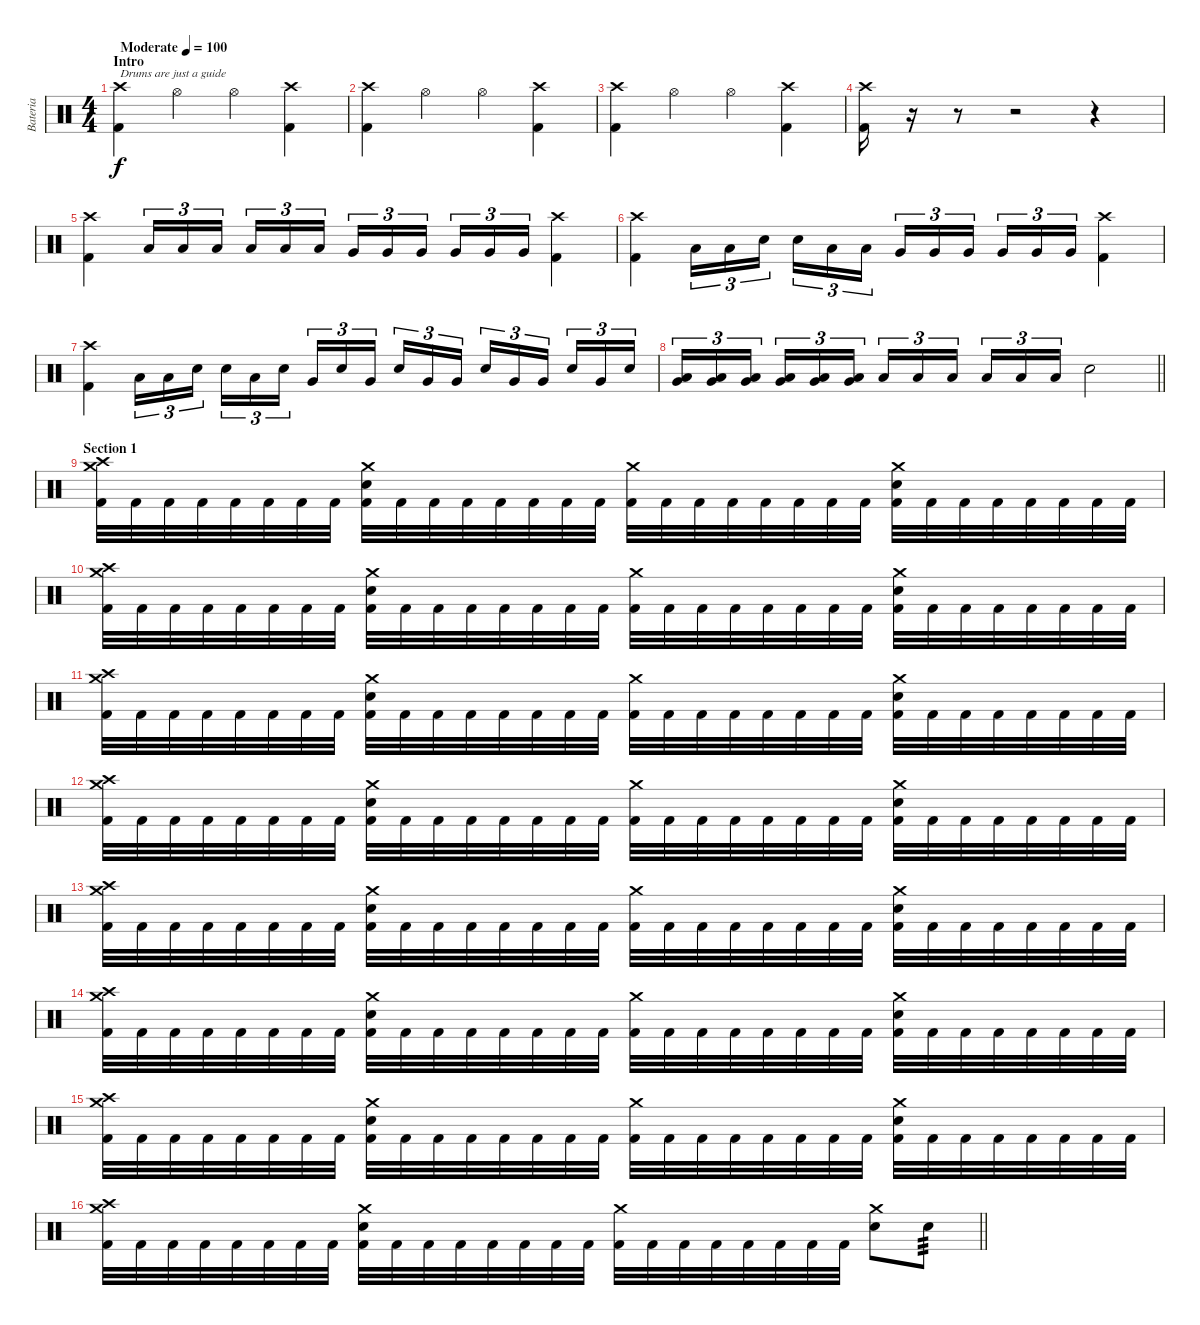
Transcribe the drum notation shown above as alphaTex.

\track ("Bateria" "Bateria") {instrument percussion}
\staff {score}
\articulation defaults
\ts (4 4)
\section ("" "Intro")
\tempo (100 "Moderate")
\clef neutral
\ks c
("Crash high (hit)" "Kick (hit) 2").4{txt "Drums are just a guide" dy f} "Hi-Hat (open)".4 "Hi-Hat (open)".4 ("Crash high (hit)" "Kick (hit) 2").4 |
("Crash high (hit)" "Kick (hit) 2").4 "Hi-Hat (open)".4 "Hi-Hat (open)".4 ("Crash high (hit)" "Kick (hit) 2").4 |
("Crash high (hit)" "Kick (hit) 2").4 "Hi-Hat (open)".4 "Hi-Hat (open)".4 ("Crash high (hit)" "Kick (hit) 2").4 |
("Crash high (hit)" "Kick (hit) 2").16 r.16 r.8 r.2 r.4 |
("Crash high (hit)" "Kick (hit) 2").4 "Low Tom (hit)".16{tu (3 2)} "Low Tom (hit)".16{tu (3 2)} "Low Tom (hit)".16{tu (3 2) beam splitsecondary} "Low Tom (hit)".16{tu (3 2)} "Low Tom (hit)".16{tu (3 2)} "Low Tom (hit)".16{tu (3 2)} "Very Low Tom (hit)".16{tu (3 2)} "Very Low Tom (hit)".16{tu (3 2)} "Very Low Tom (hit)".16{tu (3 2) beam splitsecondary} "Very Low Tom (hit)".16{tu (3 2)} "Very Low Tom (hit)".16{tu (3 2)} "Very Low Tom (hit)".16{tu (3 2)} ("Crash high (hit)" "Kick (hit) 2").4 |
("Crash high (hit)" "Kick (hit) 2").4 "Low Tom (hit)".16{tu (3 2)} "Low Tom (hit)".16{tu (3 2)} "Snare (hit) 2".16{tu (3 2) beam splitsecondary} "Snare (hit) 2".16{tu (3 2)} "Low Tom (hit)".16{tu (3 2)} "Low Tom (hit)".16{tu (3 2)} "Very Low Tom (hit)".16{tu (3 2)} "Very Low Tom (hit)".16{tu (3 2)} "Very Low Tom (hit)".16{tu (3 2) beam splitsecondary} "Very Low Tom (hit)".16{tu (3 2)} "Very Low Tom (hit)".16{tu (3 2)} "Very Low Tom (hit)".16{tu (3 2)} ("Crash high (hit)" "Kick (hit) 2").4 |
("Crash high (hit)" "Kick (hit) 2").4 "Low Tom (hit)".16{tu (3 2)} "Low Tom (hit)".16{tu (3 2)} "Snare (hit) 2".16{tu (3 2) beam splitsecondary} "Snare (hit) 2".16{tu (3 2)} "Low Tom (hit)".16{tu (3 2)} "Snare (hit) 2".16{tu (3 2)} "Very Low Tom (hit)".16{tu (3 2)} "Snare (hit) 2".16{tu (3 2)} "Very Low Tom (hit)".16{tu (3 2) beam splitsecondary} "Snare (hit) 2".16{tu (3 2)} "Very Low Tom (hit)".16{tu (3 2)} "Very Low Tom (hit)".16{tu (3 2)} "Snare (hit) 2".16{tu (3 2)} "Very Low Tom (hit)".16{tu (3 2)} "Very Low Tom (hit)".16{tu (3 2) beam splitsecondary} "Snare (hit) 2".16{tu (3 2)} "Very Low Tom (hit)".16{tu (3 2)} "Snare (hit) 2".16{tu (3 2)} |
\barLineRight lightlight
("Very Low Tom (hit)" "Low Floor Tom (hit)").16{tu (3 2)} ("Very Low Tom (hit)" "Low Floor Tom (hit)").16{tu (3 2)} ("Very Low Tom (hit)" "Low Floor Tom (hit)").16{tu (3 2) beam splitsecondary} ("Very Low Tom (hit)" "Low Floor Tom (hit)").16{tu (3 2)} ("Very Low Tom (hit)" "Low Floor Tom (hit)").16{tu (3 2)} ("Very Low Tom (hit)" "Low Floor Tom (hit)").16{tu (3 2)} "Low Floor Tom (hit)".16{tu (3 2)} "Low Floor Tom (hit)".16{tu (3 2)} "Low Floor Tom (hit)".16{tu (3 2) beam splitsecondary} "Low Floor Tom (hit)".16{tu (3 2)} "Low Floor Tom (hit)".16{tu (3 2)} "Low Floor Tom (hit)".16{tu (3 2)} "Snare (hit) 2".2 |
\section ("" "Section 1")
("Crash high (hit)" "Crash medium (hit)" "Kick (hit) 2").32 "Kick (hit) 2".32 "Kick (hit) 2".32 "Kick (hit) 2".32 "Kick (hit) 2".32 "Kick (hit) 2".32 "Kick (hit) 2".32 "Kick (hit) 2".32 ("Crash medium (hit)" "Snare (hit) 2" "Kick (hit) 2").32 "Kick (hit) 2".32 "Kick (hit) 2".32 "Kick (hit) 2".32 "Kick (hit) 2".32 "Kick (hit) 2".32 "Kick (hit) 2".32 "Kick (hit) 2".32 ("Crash medium (hit)" "Kick (hit) 2").32 "Kick (hit) 2".32 "Kick (hit) 2".32 "Kick (hit) 2".32 "Kick (hit) 2".32 "Kick (hit) 2".32 "Kick (hit) 2".32 "Kick (hit) 2".32 ("Crash medium (hit)" "Snare (hit) 2" "Kick (hit) 2").32 "Kick (hit) 2".32 "Kick (hit) 2".32 "Kick (hit) 2".32 "Kick (hit) 2".32 "Kick (hit) 2".32 "Kick (hit) 2".32 "Kick (hit) 2".32 |
("Crash high (hit)" "Crash medium (hit)" "Kick (hit) 2").32 "Kick (hit) 2".32 "Kick (hit) 2".32 "Kick (hit) 2".32 "Kick (hit) 2".32 "Kick (hit) 2".32 "Kick (hit) 2".32 "Kick (hit) 2".32 ("Crash medium (hit)" "Snare (hit) 2" "Kick (hit) 2").32 "Kick (hit) 2".32 "Kick (hit) 2".32 "Kick (hit) 2".32 "Kick (hit) 2".32 "Kick (hit) 2".32 "Kick (hit) 2".32 "Kick (hit) 2".32 ("Crash medium (hit)" "Kick (hit) 2").32 "Kick (hit) 2".32 "Kick (hit) 2".32 "Kick (hit) 2".32 "Kick (hit) 2".32 "Kick (hit) 2".32 "Kick (hit) 2".32 "Kick (hit) 2".32 ("Crash medium (hit)" "Snare (hit) 2" "Kick (hit) 2").32 "Kick (hit) 2".32 "Kick (hit) 2".32 "Kick (hit) 2".32 "Kick (hit) 2".32 "Kick (hit) 2".32 "Kick (hit) 2".32 "Kick (hit) 2".32 |
("Crash high (hit)" "Crash medium (hit)" "Kick (hit) 2").32 "Kick (hit) 2".32 "Kick (hit) 2".32 "Kick (hit) 2".32 "Kick (hit) 2".32 "Kick (hit) 2".32 "Kick (hit) 2".32 "Kick (hit) 2".32 ("Crash medium (hit)" "Snare (hit) 2" "Kick (hit) 2").32 "Kick (hit) 2".32 "Kick (hit) 2".32 "Kick (hit) 2".32 "Kick (hit) 2".32 "Kick (hit) 2".32 "Kick (hit) 2".32 "Kick (hit) 2".32 ("Crash medium (hit)" "Kick (hit) 2").32 "Kick (hit) 2".32 "Kick (hit) 2".32 "Kick (hit) 2".32 "Kick (hit) 2".32 "Kick (hit) 2".32 "Kick (hit) 2".32 "Kick (hit) 2".32 ("Crash medium (hit)" "Snare (hit) 2" "Kick (hit) 2").32 "Kick (hit) 2".32 "Kick (hit) 2".32 "Kick (hit) 2".32 "Kick (hit) 2".32 "Kick (hit) 2".32 "Kick (hit) 2".32 "Kick (hit) 2".32 |
("Crash high (hit)" "Crash medium (hit)" "Kick (hit) 2").32 "Kick (hit) 2".32 "Kick (hit) 2".32 "Kick (hit) 2".32 "Kick (hit) 2".32 "Kick (hit) 2".32 "Kick (hit) 2".32 "Kick (hit) 2".32 ("Crash medium (hit)" "Snare (hit) 2" "Kick (hit) 2").32 "Kick (hit) 2".32 "Kick (hit) 2".32 "Kick (hit) 2".32 "Kick (hit) 2".32 "Kick (hit) 2".32 "Kick (hit) 2".32 "Kick (hit) 2".32 ("Crash medium (hit)" "Kick (hit) 2").32 "Kick (hit) 2".32 "Kick (hit) 2".32 "Kick (hit) 2".32 "Kick (hit) 2".32 "Kick (hit) 2".32 "Kick (hit) 2".32 "Kick (hit) 2".32 ("Crash medium (hit)" "Snare (hit) 2" "Kick (hit) 2").32 "Kick (hit) 2".32 "Kick (hit) 2".32 "Kick (hit) 2".32 "Kick (hit) 2".32 "Kick (hit) 2".32 "Kick (hit) 2".32 "Kick (hit) 2".32 |
("Crash high (hit)" "Crash medium (hit)" "Kick (hit) 2").32 "Kick (hit) 2".32 "Kick (hit) 2".32 "Kick (hit) 2".32 "Kick (hit) 2".32 "Kick (hit) 2".32 "Kick (hit) 2".32 "Kick (hit) 2".32 ("Crash medium (hit)" "Snare (hit) 2" "Kick (hit) 2").32 "Kick (hit) 2".32 "Kick (hit) 2".32 "Kick (hit) 2".32 "Kick (hit) 2".32 "Kick (hit) 2".32 "Kick (hit) 2".32 "Kick (hit) 2".32 ("Crash medium (hit)" "Kick (hit) 2").32 "Kick (hit) 2".32 "Kick (hit) 2".32 "Kick (hit) 2".32 "Kick (hit) 2".32 "Kick (hit) 2".32 "Kick (hit) 2".32 "Kick (hit) 2".32 ("Crash medium (hit)" "Snare (hit) 2" "Kick (hit) 2").32 "Kick (hit) 2".32 "Kick (hit) 2".32 "Kick (hit) 2".32 "Kick (hit) 2".32 "Kick (hit) 2".32 "Kick (hit) 2".32 "Kick (hit) 2".32 |
("Crash high (hit)" "Crash medium (hit)" "Kick (hit) 2").32 "Kick (hit) 2".32 "Kick (hit) 2".32 "Kick (hit) 2".32 "Kick (hit) 2".32 "Kick (hit) 2".32 "Kick (hit) 2".32 "Kick (hit) 2".32 ("Crash medium (hit)" "Snare (hit) 2" "Kick (hit) 2").32 "Kick (hit) 2".32 "Kick (hit) 2".32 "Kick (hit) 2".32 "Kick (hit) 2".32 "Kick (hit) 2".32 "Kick (hit) 2".32 "Kick (hit) 2".32 ("Crash medium (hit)" "Kick (hit) 2").32 "Kick (hit) 2".32 "Kick (hit) 2".32 "Kick (hit) 2".32 "Kick (hit) 2".32 "Kick (hit) 2".32 "Kick (hit) 2".32 "Kick (hit) 2".32 ("Crash medium (hit)" "Snare (hit) 2" "Kick (hit) 2").32 "Kick (hit) 2".32 "Kick (hit) 2".32 "Kick (hit) 2".32 "Kick (hit) 2".32 "Kick (hit) 2".32 "Kick (hit) 2".32 "Kick (hit) 2".32 |
("Crash high (hit)" "Crash medium (hit)" "Kick (hit) 2").32 "Kick (hit) 2".32 "Kick (hit) 2".32 "Kick (hit) 2".32 "Kick (hit) 2".32 "Kick (hit) 2".32 "Kick (hit) 2".32 "Kick (hit) 2".32 ("Crash medium (hit)" "Snare (hit) 2" "Kick (hit) 2").32 "Kick (hit) 2".32 "Kick (hit) 2".32 "Kick (hit) 2".32 "Kick (hit) 2".32 "Kick (hit) 2".32 "Kick (hit) 2".32 "Kick (hit) 2".32 ("Crash medium (hit)" "Kick (hit) 2").32 "Kick (hit) 2".32 "Kick (hit) 2".32 "Kick (hit) 2".32 "Kick (hit) 2".32 "Kick (hit) 2".32 "Kick (hit) 2".32 "Kick (hit) 2".32 ("Crash medium (hit)" "Snare (hit) 2" "Kick (hit) 2").32 "Kick (hit) 2".32 "Kick (hit) 2".32 "Kick (hit) 2".32 "Kick (hit) 2".32 "Kick (hit) 2".32 "Kick (hit) 2".32 "Kick (hit) 2".32 |
\barLineRight lightlight
("Crash high (hit)" "Crash medium (hit)" "Kick (hit) 2").32 "Kick (hit) 2".32 "Kick (hit) 2".32 "Kick (hit) 2".32 "Kick (hit) 2".32 "Kick (hit) 2".32 "Kick (hit) 2".32 "Kick (hit) 2".32 ("Crash medium (hit)" "Snare (hit) 2" "Kick (hit) 2").32 "Kick (hit) 2".32 "Kick (hit) 2".32 "Kick (hit) 2".32 "Kick (hit) 2".32 "Kick (hit) 2".32 "Kick (hit) 2".32 "Kick (hit) 2".32 ("Crash medium (hit)" "Kick (hit) 2").32 "Kick (hit) 2".32 "Kick (hit) 2".32 "Kick (hit) 2".32 "Kick (hit) 2".32 "Kick (hit) 2".32 "Kick (hit) 2".32 "Kick (hit) 2".32 ("Crash medium (hit)" "Snare (hit) 2").8 "Snare (hit) 2".8{tp 3}
